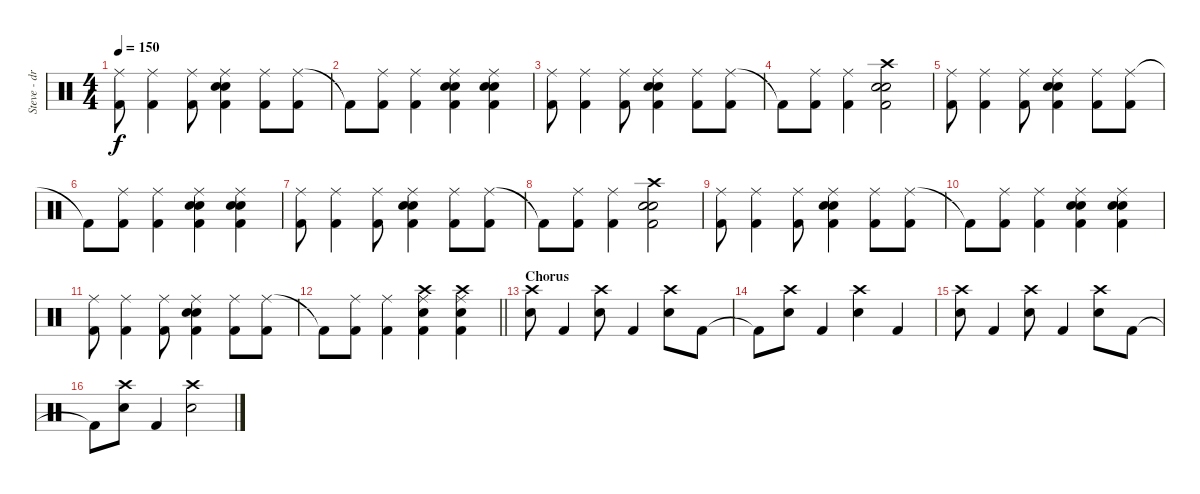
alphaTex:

\track ("Steve - drums" "Steve - dr") {instrument percussion}
\staff {score}
\articulation defaults
\ts (4 4)
\tempo 150
\clef neutral
\ks c
("Ride (middle)" "Kick (hit) 2").8{dy f} ("Ride (middle)" "Kick (hit) 2").4 ("Ride (middle)" "Kick (hit) 2").8 ("Electric Snare (hit)" "Ride (middle)" "Kick (hit) 2" "Snare (hit) 2").4 ("Ride (middle)" "Kick (hit) 2").8 ("Ride (middle)" "Kick (hit) 2").8 |
"Kick (hit) 2"{t}.8 ("Ride (middle)" "Kick (hit) 2").8 ("Ride (middle)" "Kick (hit) 2").4 ("Electric Snare (hit)" "Ride (middle)" "Kick (hit) 2" "Snare (hit) 2").4 ("Electric Snare (hit)" "Ride (middle)" "Kick (hit) 2" "Snare (hit) 2").4 |
("Ride (middle)" "Kick (hit) 2").8 ("Ride (middle)" "Kick (hit) 2").4 ("Ride (middle)" "Kick (hit) 2").8 ("Electric Snare (hit)" "Ride (middle)" "Kick (hit) 2" "Snare (hit) 2").4 ("Ride (middle)" "Kick (hit) 2").8 ("Ride (middle)" "Kick (hit) 2").8 |
"Kick (hit) 2"{t}.8 ("Ride (middle)" "Kick (hit) 2").8 ("Ride (middle)" "Kick (hit) 2").4 ("Electric Snare (hit)" "Crash high (hit)" "Kick (hit) 2" "Snare (hit) 2").2 |
("Ride (middle)" "Kick (hit) 2").8 ("Ride (middle)" "Kick (hit) 2").4 ("Ride (middle)" "Kick (hit) 2").8 ("Electric Snare (hit)" "Ride (middle)" "Kick (hit) 2" "Snare (hit) 2").4 ("Ride (middle)" "Kick (hit) 2").8 ("Ride (middle)" "Kick (hit) 2").8 |
"Kick (hit) 2"{t}.8 ("Ride (middle)" "Kick (hit) 2").8 ("Ride (middle)" "Kick (hit) 2").4 ("Electric Snare (hit)" "Ride (middle)" "Kick (hit) 2" "Snare (hit) 2").4 ("Electric Snare (hit)" "Ride (middle)" "Kick (hit) 2" "Snare (hit) 2").4 |
("Ride (middle)" "Kick (hit) 2").8 ("Ride (middle)" "Kick (hit) 2").4 ("Ride (middle)" "Kick (hit) 2").8 ("Electric Snare (hit)" "Ride (middle)" "Kick (hit) 2" "Snare (hit) 2").4 ("Ride (middle)" "Kick (hit) 2").8 ("Ride (middle)" "Kick (hit) 2").8 |
"Kick (hit) 2"{t}.8 ("Ride (middle)" "Kick (hit) 2").8 ("Ride (middle)" "Kick (hit) 2").4 ("Electric Snare (hit)" "Crash high (hit)" "Kick (hit) 2" "Snare (hit) 2").2 |
("Ride (middle)" "Kick (hit) 2").8 ("Ride (middle)" "Kick (hit) 2").4 ("Ride (middle)" "Kick (hit) 2").8 ("Electric Snare (hit)" "Ride (middle)" "Kick (hit) 2" "Snare (hit) 2").4 ("Ride (middle)" "Kick (hit) 2").8 ("Ride (middle)" "Kick (hit) 2").8 |
"Kick (hit) 2"{t}.8 ("Ride (middle)" "Kick (hit) 2").8 ("Ride (middle)" "Kick (hit) 2").4 ("Electric Snare (hit)" "Ride (middle)" "Kick (hit) 2" "Snare (hit) 2").4 ("Electric Snare (hit)" "Ride (middle)" "Kick (hit) 2" "Snare (hit) 2").4 |
("Ride (middle)" "Kick (hit) 2").8 ("Ride (middle)" "Kick (hit) 2").4 ("Ride (middle)" "Kick (hit) 2").8 ("Electric Snare (hit)" "Ride (middle)" "Kick (hit) 2" "Snare (hit) 2").4 ("Ride (middle)" "Kick (hit) 2").8 ("Ride (middle)" "Kick (hit) 2").8 |
\barLineRight lightlight "Kick (hit) 2"{t}.8
("Ride (middle)" "Kick (hit) 2").8 ("Ride (middle)" "Kick (hit) 2").4 ("Crash high (hit)" "Ride (middle)" "Kick (hit) 2" "Snare (hit) 2").4 ("Crash high (hit)" "Ride (middle)" "Kick (hit) 2" "Snare (hit) 2").4 |
\section ("" "Chorus")
("Crash high (hit)" "Snare (hit) 2").8 "Kick (hit) 2".4 ("Crash high (hit)" "Snare (hit) 2").8 "Kick (hit) 2".4 ("Crash high (hit)" "Snare (hit) 2").8 "Kick (hit) 2".8 |
"Kick (hit) 2"{t}.8 ("Crash high (hit)" "Snare (hit) 2").8 "Kick (hit) 2".4 ("Crash high (hit)" "Snare (hit) 2").4 "Kick (hit) 2".4 |
("Crash high (hit)" "Snare (hit) 2").8 "Kick (hit) 2".4 ("Crash high (hit)" "Snare (hit) 2").8 "Kick (hit) 2".4 ("Crash high (hit)" "Snare (hit) 2").8 "Kick (hit) 2".8 |
"Kick (hit) 2"{t}.8 ("Crash high (hit)" "Snare (hit) 2").8 "Kick (hit) 2".4 ("Crash high (hit)" "Snare (hit) 2").2
